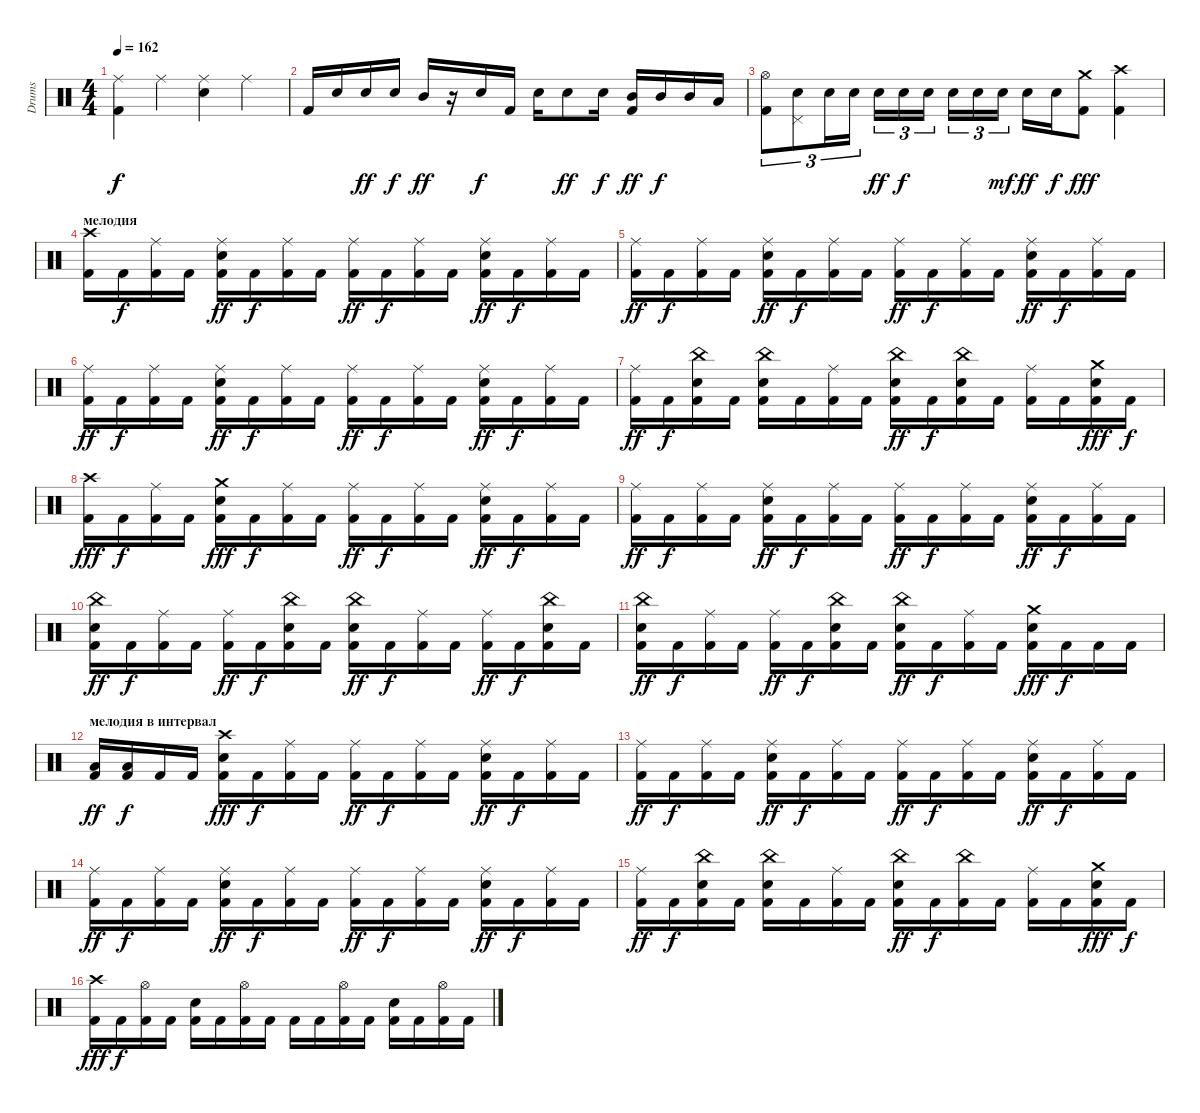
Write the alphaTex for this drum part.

\track ("Drums" "Drums") {instrument percussion}
\staff {score}
\articulation defaults
\ts (4 4)
\tempo 162
\clef neutral
\ks c
("Ride (middle)" "Kick (hit) 2").4{dy f} "Ride (middle)".4 ("Ride (middle)" "Snare (hit) 2").4 "Ride (middle)".4 |
"Kick (hit) 2".16 "Snare (hit) 2".16 "Snare (hit) 2".16{dy ff} "Snare (hit) 2".16{dy f} "Mid Tom (hit)".16{dy ff} r.16 "Snare (hit) 2".16{dy f} "Kick (hit) 2".16 "Snare (hit) 2".16 "Snare (hit) 2".8{dy ff} "Snare (hit) 2".16{dy f} ("Mid Tom (hit)" "Kick (hit) 2").16{dy ff} "Mid Tom (hit)".16{dy f} "Mid Tom (hit)".16 "Low Tom (hit)".16 |
("Hi-Hat (open)" "Kick (hit) 2").8{tu (3 2)} ("Pedal Hi-Hat (hit)" "Snare (hit) 2").8{tu (3 2)} "Snare (hit) 2".16{tu (3 2)} "Snare (hit) 2".16{tu (3 2)} "Snare (hit) 2".16{tu (3 2) dy ff} "Snare (hit) 2".16{tu (3 2) dy f} "Snare (hit) 2".16{tu (3 2)} "Snare (hit) 2".16{tu (3 2)} "Snare (hit) 2".16{tu (3 2)} "Snare (hit) 2".16{tu (3 2) dy mf} "Snare (hit) 2".16{dy ff} "Snare (hit) 2".16{dy f} ("Crash medium (hit)" "Kick (hit) 2").8{dy fff} ("Crash high (hit)" "Kick (hit) 2").4 |
\section ("" "мелодия")
("Crash high (hit)" "Kick (hit) 2").16 "Kick (hit) 2".16{dy f} ("Ride (middle)" "Kick (hit) 2").16 "Kick (hit) 2".16 ("Ride (middle)" "Snare (hit) 2" "Kick (hit) 2").16{dy ff} "Kick (hit) 2".16{dy f} ("Ride (middle)" "Kick (hit) 2").16 "Kick (hit) 2".16 ("Ride (middle)" "Kick (hit) 2").16{dy ff} "Kick (hit) 2".16{dy f} ("Ride (middle)" "Kick (hit) 2").16 "Kick (hit) 2".16 ("Ride (middle)" "Snare (hit) 2" "Kick (hit) 2").16{dy ff} "Kick (hit) 2".16{dy f} ("Ride (middle)" "Kick (hit) 2").16 "Kick (hit) 2".16 |
("Ride (middle)" "Kick (hit) 2").16{dy ff} "Kick (hit) 2".16{dy f} ("Ride (middle)" "Kick (hit) 2").16 "Kick (hit) 2".16 ("Ride (middle)" "Snare (hit) 2" "Kick (hit) 2").16{dy ff} "Kick (hit) 2".16{dy f} ("Ride (middle)" "Kick (hit) 2").16 "Kick (hit) 2".16 ("Ride (middle)" "Kick (hit) 2").16{dy ff} "Kick (hit) 2".16{dy f} ("Ride (middle)" "Kick (hit) 2").16 "Kick (hit) 2".16 ("Ride (middle)" "Snare (hit) 2" "Kick (hit) 2").16{dy ff} "Kick (hit) 2".16{dy f} ("Ride (middle)" "Kick (hit) 2").16 "Kick (hit) 2".16 |
("Ride (middle)" "Kick (hit) 2").16{dy ff} "Kick (hit) 2".16{dy f} ("Ride (middle)" "Kick (hit) 2").16 "Kick (hit) 2".16 ("Ride (middle)" "Snare (hit) 2" "Kick (hit) 2").16{dy ff} "Kick (hit) 2".16{dy f} ("Ride (middle)" "Kick (hit) 2").16 "Kick (hit) 2".16 ("Ride (middle)" "Kick (hit) 2").16{dy ff} "Kick (hit) 2".16{dy f} ("Ride (middle)" "Kick (hit) 2").16 "Kick (hit) 2".16 ("Ride (middle)" "Snare (hit) 2" "Kick (hit) 2").16{dy ff} "Kick (hit) 2".16{dy f} ("Ride (middle)" "Kick (hit) 2").16 "Kick (hit) 2".16 |
("Ride (middle)" "Kick (hit) 2").16{dy ff} "Kick (hit) 2".16{dy f} ("China (hit)" "Snare (hit) 2" "Kick (hit) 2").16 "Kick (hit) 2".16 ("China (hit)" "Snare (hit) 2" "Kick (hit) 2").16 "Kick (hit) 2".16 ("Ride (middle)" "Kick (hit) 2").16 "Kick (hit) 2".16 ("China (hit)" "Snare (hit) 2" "Kick (hit) 2").16{dy ff} "Kick (hit) 2".16{dy f} ("China (hit)" "Snare (hit) 2" "Kick (hit) 2").16 "Kick (hit) 2".16 ("Ride (middle)" "Kick (hit) 2").16 "Kick (hit) 2".16 ("Crash medium (hit)" "Snare (hit) 2" "Kick (hit) 2").16{dy fff} "Kick (hit) 2".16{dy f} |
("Crash high (hit)" "Kick (hit) 2").16{dy fff} "Kick (hit) 2".16{dy f} ("Ride (middle)" "Kick (hit) 2").16 "Kick (hit) 2".16 ("Crash medium (hit)" "Snare (hit) 2" "Kick (hit) 2").16{dy fff} "Kick (hit) 2".16{dy f} ("Ride (middle)" "Kick (hit) 2").16 "Kick (hit) 2".16 ("Ride (middle)" "Kick (hit) 2").16{dy ff} "Kick (hit) 2".16{dy f} ("Ride (middle)" "Kick (hit) 2").16 "Kick (hit) 2".16 ("Ride (middle)" "Snare (hit) 2" "Kick (hit) 2").16{dy ff} "Kick (hit) 2".16{dy f} ("Ride (middle)" "Kick (hit) 2").16 "Kick (hit) 2".16 |
("Ride (middle)" "Kick (hit) 2").16{dy ff} "Kick (hit) 2".16{dy f} ("Ride (middle)" "Kick (hit) 2").16 "Kick (hit) 2".16 ("Ride (middle)" "Snare (hit) 2" "Kick (hit) 2").16{dy ff} "Kick (hit) 2".16{dy f} ("Ride (middle)" "Kick (hit) 2").16 "Kick (hit) 2".16 ("Ride (middle)" "Kick (hit) 2").16{dy ff} "Kick (hit) 2".16{dy f} ("Ride (middle)" "Kick (hit) 2").16 "Kick (hit) 2".16 ("Ride (middle)" "Snare (hit) 2" "Kick (hit) 2").16{dy ff} "Kick (hit) 2".16{dy f} ("Ride (middle)" "Kick (hit) 2").16 "Kick (hit) 2".16 |
("China (hit)" "Snare (hit) 2" "Kick (hit) 2").16{dy ff} "Kick (hit) 2".16{dy f} ("Ride (middle)" "Kick (hit) 2").16 "Kick (hit) 2".16 ("Ride (middle)" "Kick (hit) 2").16{dy ff} "Kick (hit) 2".16{dy f} ("China (hit)" "Snare (hit) 2" "Kick (hit) 2").16 "Kick (hit) 2".16 ("China (hit)" "Snare (hit) 2" "Kick (hit) 2").16{dy ff} "Kick (hit) 2".16{dy f} ("Ride (middle)" "Kick (hit) 2").16 "Kick (hit) 2".16 ("Ride (middle)" "Kick (hit) 2").16{dy ff} "Kick (hit) 2".16{dy f} ("China (hit)" "Snare (hit) 2" "Kick (hit) 2").16 "Kick (hit) 2".16 |
("China (hit)" "Snare (hit) 2" "Kick (hit) 2").16{dy ff} "Kick (hit) 2".16{dy f} ("Ride (middle)" "Kick (hit) 2").16 "Kick (hit) 2".16 ("Ride (middle)" "Kick (hit) 2").16{dy ff} "Kick (hit) 2".16{dy f} ("China (hit)" "Snare (hit) 2" "Kick (hit) 2").16 "Kick (hit) 2".16 ("China (hit)" "Snare (hit) 2" "Kick (hit) 2").16{dy ff} "Kick (hit) 2".16{dy f} ("Ride (middle)" "Kick (hit) 2").16 "Kick (hit) 2".16 ("Crash medium (hit)" "Snare (hit) 2" "Kick (hit) 2").16{dy fff} "Kick (hit) 2".16{dy f} "Kick (hit) 2".16 "Kick (hit) 2".16 |
\section ("" "мелодия в интервал")
("Low Floor Tom (hit)" "Kick (hit) 2").16{dy ff} ("Low Floor Tom (hit)" "Kick (hit) 2").16{dy f} "Kick (hit) 2".16 "Kick (hit) 2".16 ("Crash high (hit)" "Snare (hit) 2" "Kick (hit) 2").16{dy fff} "Kick (hit) 2".16{dy f} ("Ride (middle)" "Kick (hit) 2").16 "Kick (hit) 2".16 ("Ride (middle)" "Kick (hit) 2").16{dy ff} "Kick (hit) 2".16{dy f} ("Ride (middle)" "Kick (hit) 2").16 "Kick (hit) 2".16 ("Ride (middle)" "Snare (hit) 2" "Kick (hit) 2").16{dy ff} "Kick (hit) 2".16{dy f} ("Ride (middle)" "Kick (hit) 2").16 "Kick (hit) 2".16 |
("Ride (middle)" "Kick (hit) 2").16{dy ff} "Kick (hit) 2".16{dy f} ("Ride (middle)" "Kick (hit) 2").16 "Kick (hit) 2".16 ("Ride (middle)" "Snare (hit) 2" "Kick (hit) 2").16{dy ff} "Kick (hit) 2".16{dy f} ("Ride (middle)" "Kick (hit) 2").16 "Kick (hit) 2".16 ("Ride (middle)" "Kick (hit) 2").16{dy ff} "Kick (hit) 2".16{dy f} ("Ride (middle)" "Kick (hit) 2").16 "Kick (hit) 2".16 ("Ride (middle)" "Snare (hit) 2" "Kick (hit) 2").16{dy ff} "Kick (hit) 2".16{dy f} ("Ride (middle)" "Kick (hit) 2").16 "Kick (hit) 2".16 |
("Ride (middle)" "Kick (hit) 2").16{dy ff} "Kick (hit) 2".16{dy f} ("Ride (middle)" "Kick (hit) 2").16 "Kick (hit) 2".16 ("Ride (middle)" "Snare (hit) 2" "Kick (hit) 2").16{dy ff} "Kick (hit) 2".16{dy f} ("Ride (middle)" "Kick (hit) 2").16 "Kick (hit) 2".16 ("Ride (middle)" "Kick (hit) 2").16{dy ff} "Kick (hit) 2".16{dy f} ("Ride (middle)" "Kick (hit) 2").16 "Kick (hit) 2".16 ("Ride (middle)" "Snare (hit) 2" "Kick (hit) 2").16{dy ff} "Kick (hit) 2".16{dy f} ("Ride (middle)" "Kick (hit) 2").16 "Kick (hit) 2".16 |
("Ride (middle)" "Kick (hit) 2").16{dy ff} "Kick (hit) 2".16{dy f} ("China (hit)" "Snare (hit) 2" "Kick (hit) 2").16 "Kick (hit) 2".16 ("China (hit)" "Snare (hit) 2" "Kick (hit) 2").16 "Kick (hit) 2".16 ("Ride (middle)" "Kick (hit) 2").16 "Kick (hit) 2".16 ("China (hit)" "Snare (hit) 2" "Kick (hit) 2").16{dy ff} "Kick (hit) 2".16{dy f} ("China (hit)" "Kick (hit) 2").16 "Kick (hit) 2".16 ("Ride (middle)" "Kick (hit) 2").16 "Kick (hit) 2".16 ("Crash medium (hit)" "Snare (hit) 2" "Kick (hit) 2").16{dy fff} "Kick (hit) 2".16{dy f} |
("Crash high (hit)" "Kick (hit) 2").16{dy fff} "Kick (hit) 2".16{dy f} ("Hi-Hat (open)" "Kick (hit) 2").16 "Kick (hit) 2".16 ("Snare (hit) 2" "Kick (hit) 2").16 "Kick (hit) 2".16 ("Hi-Hat (open)" "Kick (hit) 2").16 "Kick (hit) 2".16 "Kick (hit) 2".16 "Kick (hit) 2".16 ("Hi-Hat (open)" "Kick (hit) 2").16 "Kick (hit) 2".16 ("Snare (hit) 2" "Kick (hit) 2").16 "Kick (hit) 2".16 ("Hi-Hat (open)" "Kick (hit) 2").16 "Kick (hit) 2".16
